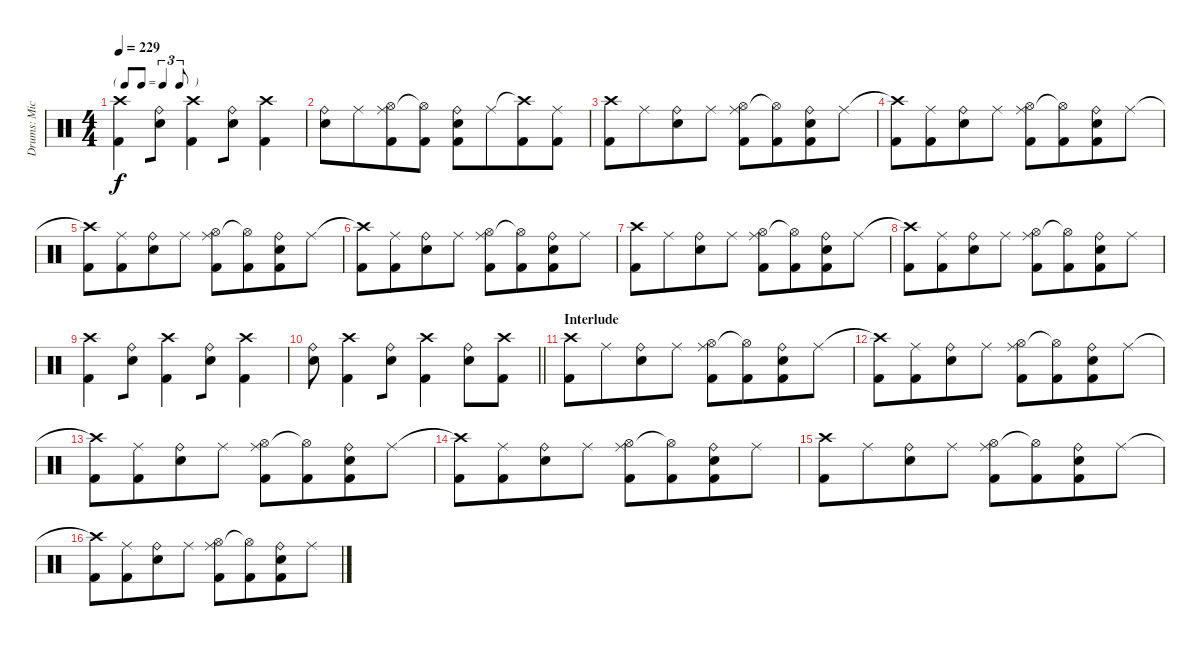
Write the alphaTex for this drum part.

\track ("Drums: Mick" "Drums: Mic") {instrument percussion}
\staff {score}
\articulation defaults
\ts (4 4)
\tf triplet8th
\tempo 229
\clef neutral
\ks c
("Crash high (hit)" "Kick (hit) 2").4{dy f beam merge} ("Ride (bell)" "Snare (hit) 2").8 ("Crash high (hit)" "Kick (hit) 2").4{beam merge} ("Ride (bell)" "Snare (hit) 2").8 ("Crash high (hit)" "Kick (hit) 2").4 |
("Ride (bell)" "Snare (hit) 2").8 "Ride (middle)".8{beam merge} ("Ride (middle)" "Hi-Hat (open)" "Kick (hit) 2").8 ("Hi-Hat (open)"{t} "Kick (hit) 2").8{beam split} ("Ride (bell)" "Snare (hit) 2" "Kick (hit) 2").8 "Ride (middle)".8{beam merge} ("Crash high (hit)"{t} "Kick (hit) 2").8 ("Ride (middle)" "Kick (hit) 2").8 |
("Crash high (hit)" "Kick (hit) 2").8 "Ride (middle)".8{beam merge} ("Ride (bell)" "Snare (hit) 2").8 "Ride (middle)".8 ("Ride (middle)" "Hi-Hat (open)" "Kick (hit) 2").8 ("Hi-Hat (open)"{t} "Kick (hit) 2").8{beam merge} ("Ride (bell)" "Snare (hit) 2" "Kick (hit) 2").8 "Ride (middle)".8 |
("Crash high (hit)"{t} "Kick (hit) 2").8 ("Ride (middle)" "Kick (hit) 2").8{beam merge} ("Ride (bell)" "Snare (hit) 2").8 "Ride (middle)".8 ("Ride (middle)" "Hi-Hat (open)" "Kick (hit) 2").8 ("Hi-Hat (open)"{t} "Kick (hit) 2").8{beam merge} ("Ride (bell)" "Snare (hit) 2" "Kick (hit) 2").8 "Ride (middle)".8 |
("Crash high (hit)"{t} "Kick (hit) 2").8 ("Ride (middle)" "Kick (hit) 2").8{beam merge} ("Ride (bell)" "Snare (hit) 2").8 "Ride (middle)".8 ("Ride (middle)" "Hi-Hat (open)" "Kick (hit) 2").8 ("Hi-Hat (open)"{t} "Kick (hit) 2").8{beam merge} ("Ride (bell)" "Snare (hit) 2" "Kick (hit) 2").8 "Ride (middle)".8 |
("Crash high (hit)"{t} "Kick (hit) 2").8 ("Ride (middle)" "Kick (hit) 2").8{beam merge} ("Ride (bell)" "Snare (hit) 2").8 "Ride (middle)".8 ("Ride (middle)" "Hi-Hat (open)" "Kick (hit) 2").8 ("Hi-Hat (open)"{t} "Kick (hit) 2").8{beam merge} ("Ride (bell)" "Snare (hit) 2" "Kick (hit) 2").8 "Ride (middle)".8 |
("Crash high (hit)" "Kick (hit) 2").8 "Ride (middle)".8{beam merge} ("Ride (bell)" "Snare (hit) 2").8 "Ride (middle)".8 ("Ride (middle)" "Hi-Hat (open)" "Kick (hit) 2").8 ("Hi-Hat (open)"{t} "Kick (hit) 2").8{beam merge} ("Ride (bell)" "Snare (hit) 2" "Kick (hit) 2").8 "Ride (middle)".8 |
("Crash high (hit)"{t} "Kick (hit) 2").8 ("Ride (middle)" "Kick (hit) 2").8{beam merge} ("Ride (bell)" "Snare (hit) 2").8 "Ride (middle)".8 ("Ride (middle)" "Hi-Hat (open)" "Kick (hit) 2").8 ("Hi-Hat (open)"{t} "Kick (hit) 2").8{beam merge} ("Ride (bell)" "Snare (hit) 2" "Kick (hit) 2").8 "Ride (middle)".8 |
("Crash high (hit)" "Kick (hit) 2").4{beam merge} ("Ride (bell)" "Snare (hit) 2").8 ("Crash high (hit)" "Kick (hit) 2").4{beam merge} ("Ride (bell)" "Snare (hit) 2").8 ("Crash high (hit)" "Kick (hit) 2").4 |
\barLineRight lightlight
("Ride (bell)" "Snare (hit) 2").8 ("Crash high (hit)" "Kick (hit) 2").4{beam merge} ("Ride (bell)" "Snare (hit) 2").8 ("Crash high (hit)" "Kick (hit) 2").4{beam merge} ("Ride (bell)" "Snare (hit) 2").8 ("Crash high (hit)" "Kick (hit) 2").8 |
\section ("" "Interlude")
("Crash high (hit)" "Kick (hit) 2").8 "Ride (middle)".8{beam merge} ("Ride (bell)" "Snare (hit) 2").8 "Ride (middle)".8 ("Ride (middle)" "Hi-Hat (open)" "Kick (hit) 2").8 ("Hi-Hat (open)"{t} "Kick (hit) 2").8{beam merge} ("Ride (bell)" "Snare (hit) 2" "Kick (hit) 2").8 "Ride (middle)".8 |
("Crash high (hit)"{t} "Kick (hit) 2").8 ("Ride (middle)" "Kick (hit) 2").8{beam merge} ("Ride (bell)" "Snare (hit) 2").8 "Ride (middle)".8 ("Ride (middle)" "Hi-Hat (open)" "Kick (hit) 2").8 ("Hi-Hat (open)"{t} "Kick (hit) 2").8{beam merge} ("Ride (bell)" "Snare (hit) 2" "Kick (hit) 2").8 "Ride (middle)".8 |
("Crash high (hit)"{t} "Kick (hit) 2").8 ("Ride (middle)" "Kick (hit) 2").8{beam merge} ("Ride (bell)" "Snare (hit) 2").8 "Ride (middle)".8 ("Ride (middle)" "Hi-Hat (open)" "Kick (hit) 2").8 ("Hi-Hat (open)"{t} "Kick (hit) 2").8{beam merge} ("Ride (bell)" "Snare (hit) 2" "Kick (hit) 2").8 "Ride (middle)".8 |
("Crash high (hit)"{t} "Kick (hit) 2").8 ("Ride (middle)" "Kick (hit) 2").8{beam merge} ("Ride (bell)" "Snare (hit) 2").8 "Ride (middle)".8 ("Ride (middle)" "Hi-Hat (open)" "Kick (hit) 2").8 ("Hi-Hat (open)"{t} "Kick (hit) 2").8{beam merge} ("Ride (bell)" "Snare (hit) 2" "Kick (hit) 2").8 "Ride (middle)".8 |
("Crash high (hit)" "Kick (hit) 2").8 "Ride (middle)".8{beam merge} ("Ride (bell)" "Snare (hit) 2").8 "Ride (middle)".8 ("Ride (middle)" "Hi-Hat (open)" "Kick (hit) 2").8 ("Hi-Hat (open)"{t} "Kick (hit) 2").8{beam merge} ("Ride (bell)" "Snare (hit) 2" "Kick (hit) 2").8 "Ride (middle)".8 |
("Crash high (hit)"{t} "Kick (hit) 2").8 ("Ride (middle)" "Kick (hit) 2").8{beam merge} ("Ride (bell)" "Snare (hit) 2").8 "Ride (middle)".8 ("Ride (middle)" "Hi-Hat (open)" "Kick (hit) 2").8 ("Hi-Hat (open)"{t} "Kick (hit) 2").8{beam merge} ("Ride (bell)" "Snare (hit) 2" "Kick (hit) 2").8 "Ride (middle)".8
